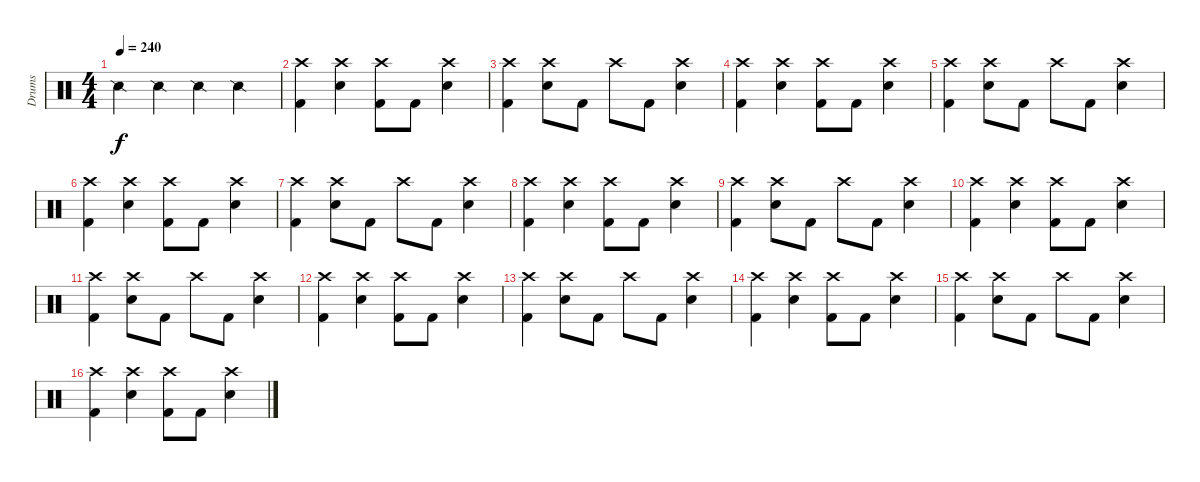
\track ("Drums" "Drums") {instrument percussion}
\staff {score}
\articulation defaults
\ts (4 4)
\tempo 240
\clef neutral
\ks c "Snare (side stick) 2".4{dy f} "Snare (side stick) 2".4 "Snare (side stick) 2".4 "Snare (side stick) 2".4
|
("Crash high (hit)" "Kick (hit) 2").4 ("Crash high (hit)" "Snare (hit) 2").4 ("Crash high (hit)" "Kick (hit) 2").8 "Kick (hit) 2".8 ("Crash high (hit)" "Snare (hit) 2").4 |
("Crash high (hit)" "Kick (hit) 2").4 ("Crash high (hit)" "Snare (hit) 2").8 "Kick (hit) 2".8 "Crash high (hit)".8 "Kick (hit) 2".8 ("Crash high (hit)" "Snare (hit) 2").4 |
("Crash high (hit)" "Kick (hit) 2").4 ("Crash high (hit)" "Snare (hit) 2").4 ("Crash high (hit)" "Kick (hit) 2").8 "Kick (hit) 2".8 ("Crash high (hit)" "Snare (hit) 2").4 |
("Crash high (hit)" "Kick (hit) 2").4 ("Crash high (hit)" "Snare (hit) 2").8 "Kick (hit) 2".8 "Crash high (hit)".8 "Kick (hit) 2".8 ("Crash high (hit)" "Snare (hit) 2").4 |
("Crash high (hit)" "Kick (hit) 2").4 ("Crash high (hit)" "Snare (hit) 2").4 ("Crash high (hit)" "Kick (hit) 2").8 "Kick (hit) 2".8 ("Crash high (hit)" "Snare (hit) 2").4 |
("Crash high (hit)" "Kick (hit) 2").4 ("Crash high (hit)" "Snare (hit) 2").8 "Kick (hit) 2".8 "Crash high (hit)".8 "Kick (hit) 2".8 ("Crash high (hit)" "Snare (hit) 2").4 |
("Crash high (hit)" "Kick (hit) 2").4 ("Crash high (hit)" "Snare (hit) 2").4 ("Crash high (hit)" "Kick (hit) 2").8 "Kick (hit) 2".8 ("Crash high (hit)" "Snare (hit) 2").4 |
("Crash high (hit)" "Kick (hit) 2").4 ("Crash high (hit)" "Snare (hit) 2").8 "Kick (hit) 2".8 "Crash high (hit)".8 "Kick (hit) 2".8 ("Crash high (hit)" "Snare (hit) 2").4 |
("Crash high (hit)" "Kick (hit) 2").4 ("Crash high (hit)" "Snare (hit) 2").4 ("Crash high (hit)" "Kick (hit) 2").8 "Kick (hit) 2".8 ("Crash high (hit)" "Snare (hit) 2").4 |
("Crash high (hit)" "Kick (hit) 2").4 ("Crash high (hit)" "Snare (hit) 2").8 "Kick (hit) 2".8 "Crash high (hit)".8 "Kick (hit) 2".8 ("Crash high (hit)" "Snare (hit) 2").4 |
("Crash high (hit)" "Kick (hit) 2").4 ("Crash high (hit)" "Snare (hit) 2").4 ("Crash high (hit)" "Kick (hit) 2").8 "Kick (hit) 2".8 ("Crash high (hit)" "Snare (hit) 2").4 |
("Crash high (hit)" "Kick (hit) 2").4 ("Crash high (hit)" "Snare (hit) 2").8 "Kick (hit) 2".8 "Crash high (hit)".8 "Kick (hit) 2".8 ("Crash high (hit)" "Snare (hit) 2").4 |
("Crash high (hit)" "Kick (hit) 2").4 ("Crash high (hit)" "Snare (hit) 2").4 ("Crash high (hit)" "Kick (hit) 2").8 "Kick (hit) 2".8 ("Crash high (hit)" "Snare (hit) 2").4 |
("Crash high (hit)" "Kick (hit) 2").4 ("Crash high (hit)" "Snare (hit) 2").8 "Kick (hit) 2".8 "Crash high (hit)".8 "Kick (hit) 2".8 ("Crash high (hit)" "Snare (hit) 2").4 |
("Crash high (hit)" "Kick (hit) 2").4 ("Crash high (hit)" "Snare (hit) 2").4 ("Crash high (hit)" "Kick (hit) 2").8 "Kick (hit) 2".8 ("Crash high (hit)" "Snare (hit) 2").4
